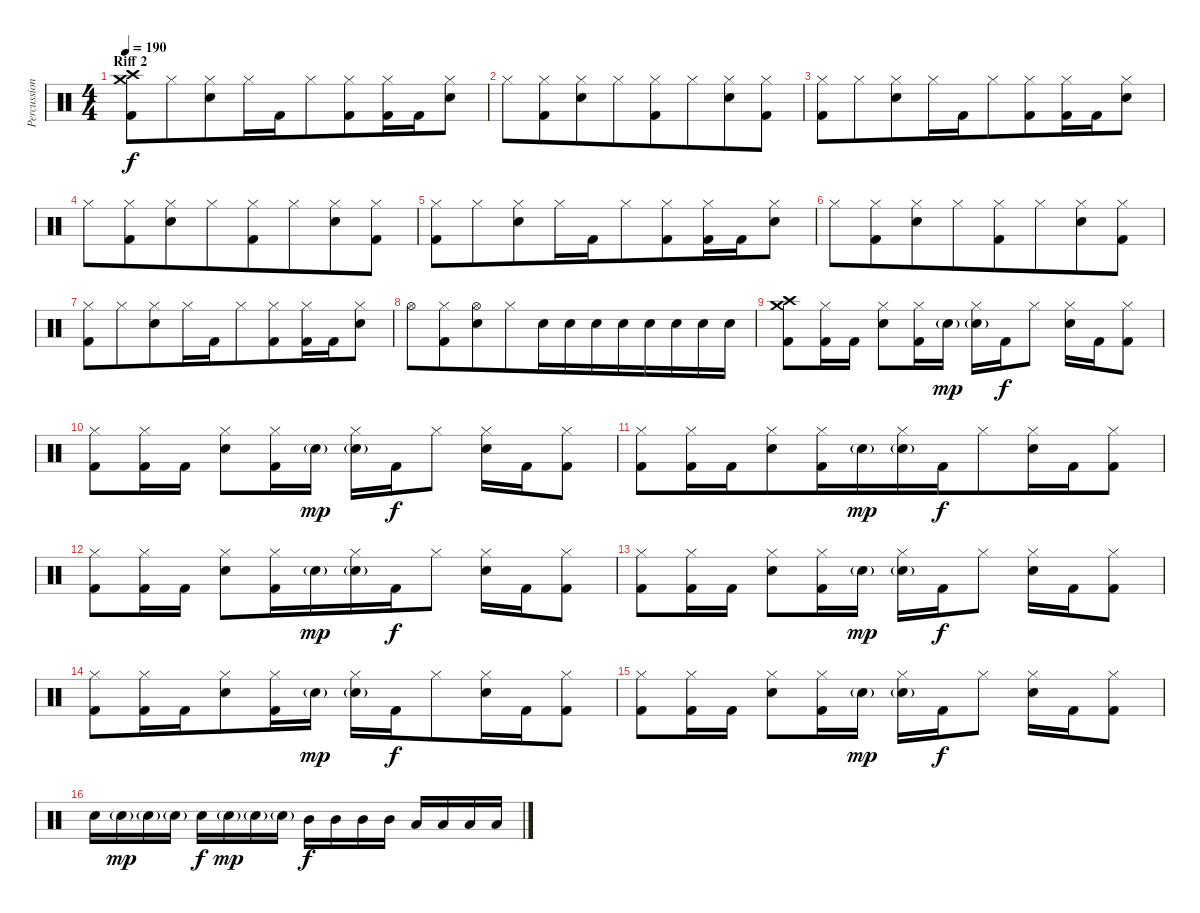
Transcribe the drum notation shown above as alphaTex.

\track ("Percussion" "Percussion") {instrument percussion}
\staff {score}
\articulation defaults
\ts (4 4)
\section ("" "Riff 2")
\tempo 190
\clef neutral
\ks c
("Crash medium (hit)" "Crash high (hit)" "Kick (hit) 2").8{dy f beam merge} "Hi-Hat (closed)".8{beam merge} ("Hi-Hat (closed)" "Electric Snare (hit)").8{beam merge} "Hi-Hat (closed)".16{beam merge} "Kick (hit) 2".16{beam merge} "Hi-Hat (closed)".8{beam merge} ("Hi-Hat (closed)" "Kick (hit) 2").8{beam merge} ("Hi-Hat (closed)" "Kick (hit) 2").16{beam merge} "Kick (hit) 2".16{beam merge} ("Hi-Hat (closed)" "Electric Snare (hit)").8 |
"Hi-Hat (closed)".8{beam merge} ("Hi-Hat (closed)" "Kick (hit) 2").8{beam merge} ("Hi-Hat (closed)" "Electric Snare (hit)").8{beam merge} "Hi-Hat (closed)".8{beam merge} ("Hi-Hat (closed)" "Kick (hit) 2").8{beam merge} "Hi-Hat (closed)".8{beam merge} ("Hi-Hat (closed)" "Electric Snare (hit)").8{beam merge} ("Hi-Hat (closed)" "Kick (hit) 2").8 |
("Hi-Hat (closed)" "Kick (hit) 2").8{beam merge} "Hi-Hat (closed)".8{beam merge} ("Hi-Hat (closed)" "Electric Snare (hit)").8{beam merge} "Hi-Hat (closed)".16{beam merge} "Kick (hit) 2".16{beam merge} "Hi-Hat (closed)".8{beam merge} ("Hi-Hat (closed)" "Kick (hit) 2").8{beam merge} ("Hi-Hat (closed)" "Kick (hit) 2").16{beam merge} "Kick (hit) 2".16{beam merge} ("Hi-Hat (closed)" "Electric Snare (hit)").8 |
"Hi-Hat (closed)".8 ("Hi-Hat (closed)" "Kick (hit) 2").8{beam merge} ("Hi-Hat (closed)" "Electric Snare (hit)").8 "Hi-Hat (closed)".8{beam merge} ("Hi-Hat (closed)" "Kick (hit) 2").8 "Hi-Hat (closed)".8{beam merge} ("Hi-Hat (closed)" "Electric Snare (hit)").8{beam merge} ("Hi-Hat (closed)" "Kick (hit) 2").8 |
("Hi-Hat (closed)" "Kick (hit) 2").8{beam merge} "Hi-Hat (closed)".8{beam merge} ("Hi-Hat (closed)" "Electric Snare (hit)").8{beam merge} "Hi-Hat (closed)".16{beam merge} "Kick (hit) 2".16{beam merge} "Hi-Hat (closed)".8{beam merge} ("Hi-Hat (closed)" "Kick (hit) 2").8{beam merge} ("Hi-Hat (closed)" "Kick (hit) 2").16{beam merge} "Kick (hit) 2".16{beam merge} ("Hi-Hat (closed)" "Electric Snare (hit)").8 |
"Hi-Hat (closed)".8 ("Hi-Hat (closed)" "Kick (hit) 2").8{beam merge} ("Hi-Hat (closed)" "Electric Snare (hit)").8{beam merge} "Hi-Hat (closed)".8{beam merge} ("Hi-Hat (closed)" "Kick (hit) 2").8{beam merge} "Hi-Hat (closed)".8{beam merge} ("Hi-Hat (closed)" "Electric Snare (hit)").8{beam merge} ("Hi-Hat (closed)" "Kick (hit) 2").8 |
("Hi-Hat (closed)" "Kick (hit) 2").8{beam merge} "Hi-Hat (closed)".8{beam merge} ("Hi-Hat (closed)" "Electric Snare (hit)").8{beam merge} "Hi-Hat (closed)".16 "Kick (hit) 2".16{beam merge} "Hi-Hat (closed)".8 ("Hi-Hat (closed)" "Kick (hit) 2").8{beam merge} ("Hi-Hat (closed)" "Kick (hit) 2").16{beam merge} "Kick (hit) 2".16 ("Hi-Hat (closed)" "Electric Snare (hit)").8 |
"Hi-Hat (open)".8{beam merge} ("Hi-Hat (closed)" "Kick (hit) 2").8{beam merge} ("Hi-Hat (open)" "Electric Snare (hit)").8{beam merge} "Hi-Hat (closed)".8{beam merge} "Electric Snare (hit)".16{beam merge} "Electric Snare (hit)".16 "Electric Snare (hit)".16 "Electric Snare (hit)".16{beam merge} "Electric Snare (hit)".16 "Electric Snare (hit)".16 "Electric Snare (hit)".16 "Electric Snare (hit)".16 |
("Crash medium (hit)" "Crash high (hit)" "Kick (hit) 2").8 ("Hi-Hat (closed)" "Kick (hit) 2").16 "Kick (hit) 2".16 ("Hi-Hat (closed)" "Electric Snare (hit)").8 ("Hi-Hat (closed)" "Kick (hit) 2").16 "Electric Snare (hit)"{g}.16{dy mp} ("Hi-Hat (closed)" "Electric Snare (hit)"{g}).16 "Kick (hit) 2".16{dy f} "Hi-Hat (closed)".8 ("Hi-Hat (closed)" "Electric Snare (hit)").16 "Kick (hit) 2".16 ("Hi-Hat (closed)" "Kick (hit) 2").8 |
("Hi-Hat (closed)" "Kick (hit) 2").8 ("Hi-Hat (closed)" "Kick (hit) 2").16 "Kick (hit) 2".16 ("Hi-Hat (closed)" "Electric Snare (hit)").8 ("Hi-Hat (closed)" "Kick (hit) 2").16 "Electric Snare (hit)"{g}.16{dy mp} ("Hi-Hat (closed)" "Electric Snare (hit)"{g}).16 "Kick (hit) 2".16{dy f} "Hi-Hat (closed)".8 ("Hi-Hat (closed)" "Electric Snare (hit)").16 "Kick (hit) 2".16 ("Hi-Hat (closed)" "Kick (hit) 2").8 |
("Hi-Hat (closed)" "Kick (hit) 2").8{beam merge} ("Hi-Hat (closed)" "Kick (hit) 2").16{beam merge} "Kick (hit) 2".16{beam merge} ("Hi-Hat (closed)" "Electric Snare (hit)").8{beam merge} ("Hi-Hat (closed)" "Kick (hit) 2").16{beam merge} "Electric Snare (hit)"{g}.16{dy mp beam merge} ("Hi-Hat (closed)" "Electric Snare (hit)"{g}).16{beam merge} "Kick (hit) 2".16{dy f beam merge} "Hi-Hat (closed)".8{beam merge} ("Hi-Hat (closed)" "Electric Snare (hit)").16{beam merge} "Kick (hit) 2".16{beam merge} ("Hi-Hat (closed)" "Kick (hit) 2").8 |
("Hi-Hat (closed)" "Kick (hit) 2").8 ("Hi-Hat (closed)" "Kick (hit) 2").16{beam merge} "Kick (hit) 2".16 ("Hi-Hat (closed)" "Electric Snare (hit)").8{beam merge} ("Hi-Hat (closed)" "Kick (hit) 2").16 "Electric Snare (hit)"{g}.16{dy mp beam merge} ("Hi-Hat (closed)" "Electric Snare (hit)"{g}).16 "Kick (hit) 2".16{dy f beam merge} "Hi-Hat (closed)".8 ("Hi-Hat (closed)" "Electric Snare (hit)").16{beam merge} "Kick (hit) 2".16 ("Hi-Hat (closed)" "Kick (hit) 2").8 |
("Hi-Hat (closed)" "Kick (hit) 2").8 ("Hi-Hat (closed)" "Kick (hit) 2").16 "Kick (hit) 2".16 ("Hi-Hat (closed)" "Electric Snare (hit)").8 ("Hi-Hat (closed)" "Kick (hit) 2").16 "Electric Snare (hit)"{g}.16{dy mp} ("Hi-Hat (closed)" "Electric Snare (hit)"{g}).16 "Kick (hit) 2".16{dy f} "Hi-Hat (closed)".8 ("Hi-Hat (closed)" "Electric Snare (hit)").16 "Kick (hit) 2".16 ("Hi-Hat (closed)" "Kick (hit) 2").8 |
("Hi-Hat (closed)" "Kick (hit) 2").8{beam merge} ("Hi-Hat (closed)" "Kick (hit) 2").16 "Kick (hit) 2".16{beam merge} ("Hi-Hat (closed)" "Electric Snare (hit)").8 ("Hi-Hat (closed)" "Kick (hit) 2").16{beam merge} "Electric Snare (hit)"{g}.16{dy mp} ("Hi-Hat (closed)" "Electric Snare (hit)"{g}).16{beam merge} "Kick (hit) 2".16{dy f} "Hi-Hat (closed)".8{beam merge} ("Hi-Hat (closed)" "Electric Snare (hit)").16 "Kick (hit) 2".16{beam merge} ("Hi-Hat (closed)" "Kick (hit) 2").8 |
("Hi-Hat (closed)" "Kick (hit) 2").8 ("Hi-Hat (closed)" "Kick (hit) 2").16 "Kick (hit) 2".16 ("Hi-Hat (closed)" "Electric Snare (hit)").8 ("Hi-Hat (closed)" "Kick (hit) 2").16 "Electric Snare (hit)"{g}.16{dy mp} ("Hi-Hat (closed)" "Electric Snare (hit)"{g}).16 "Kick (hit) 2".16{dy f} "Hi-Hat (closed)".8 ("Hi-Hat (closed)" "Electric Snare (hit)").16 "Kick (hit) 2".16 ("Hi-Hat (closed)" "Kick (hit) 2").8 |
"Electric Snare (hit)".16 "Electric Snare (hit)"{g}.16{dy mp beam merge} "Electric Snare (hit)"{g}.16 "Electric Snare (hit)"{g}.16 "Electric Snare (hit)".16{dy f} "Electric Snare (hit)"{g}.16{dy mp} "Electric Snare (hit)"{g}.16{beam merge} "Electric Snare (hit)"{g}.16 "Mid Tom (hit)".16{dy f} "Mid Tom (hit)".16{beam merge} "Mid Tom (hit)".16{beam merge} "Mid Tom (hit)".16 "Low Tom (hit)".16{beam merge} "Low Tom (hit)".16 "Low Tom (hit)".16{beam merge} "Low Tom (hit)".16
